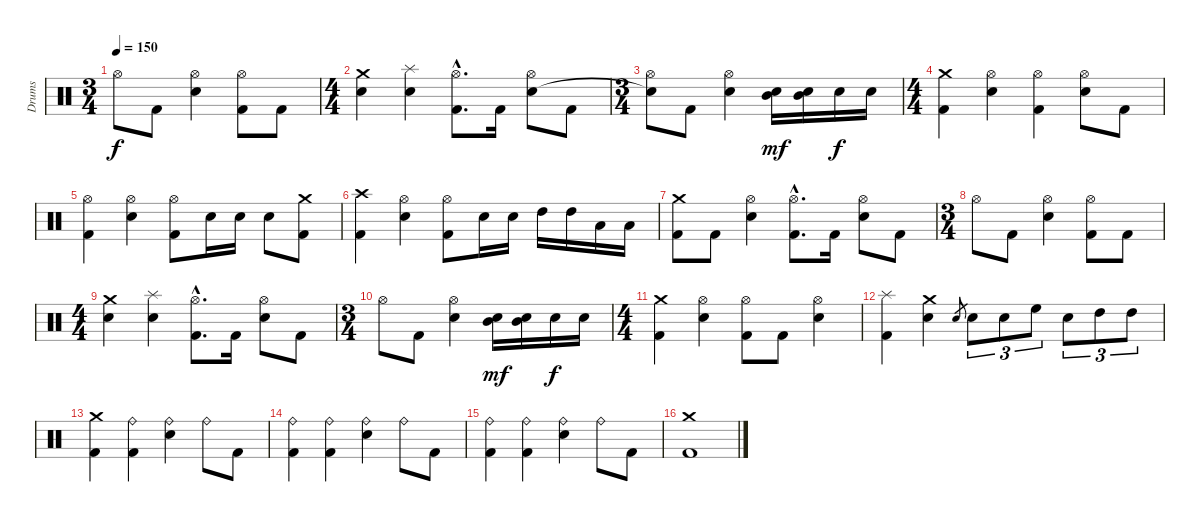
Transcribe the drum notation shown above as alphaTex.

\track ("Drums" "Drums") {instrument percussion}
\staff {score}
\articulation defaults
\ts (3 4)
\tempo 150
\clef neutral
\ks c "Hi-Hat (open)".8{dy f} "Kick (hit) 2".8
("Hi-Hat (open)" "Electric Snare (hit)").4 ("Hi-Hat (open)" "Kick (hit) 2").8 "Kick (hit) 2".8 |
\ts (4 4)
("Crash medium (hit)" "Electric Snare (hit)").4 ("Splash (hit)" "Electric Snare (hit)").4 ("Hi-Hat (open)"{hac} "Kick (hit) 2"{hac}).8{d} "Kick (hit) 2".16 ("Hi-Hat (open)" "Electric Snare (hit)").8 "Kick (hit) 2".8 |
\ts (3 4)
("Hi-Hat (open)" "Snare (hit)"{t}).8 "Kick (hit) 2".8 ("Hi-Hat (open)" "Electric Snare (hit)").4 ("Mid Tom (hit)" "Electric Snare (hit)").16{dy mf} ("Mid Tom (hit)" "Electric Snare (hit)").16 "Electric Snare (hit)".16{dy f} "Electric Snare (hit)".16 |
\ts (4 4)
("Crash medium (hit)" "Kick (hit) 2").4 ("Hi-Hat (open)" "Electric Snare (hit)").4 ("Hi-Hat (open)" "Kick (hit) 2").4 ("Hi-Hat (open)" "Electric Snare (hit)").8 "Kick (hit) 2".8 |
("Hi-Hat (open)" "Kick (hit) 2").4 ("Hi-Hat (open)" "Electric Snare (hit)").4 ("Hi-Hat (open)" "Kick (hit) 2").8 "Electric Snare (hit)".16 "Electric Snare (hit)".16 "Electric Snare (hit)".8 ("Crash medium (hit)" "Kick (hit) 2").8 |
("Crash high (hit)" "Kick (hit) 2").4 ("Hi-Hat (open)" "Electric Snare (hit)").4 ("Hi-Hat (open)" "Kick (hit) 2").8 "Electric Snare (hit)".16 "Electric Snare (hit)".16 "High Tom (hit)".16 "High Tom (hit)".16 "Low Tom (hit)".16 "Low Tom (hit)".16 |
("Crash medium (hit)" "Kick (hit) 2").8 "Kick (hit) 2".8 ("Hi-Hat (open)" "Electric Snare (hit)").4 ("Hi-Hat (open)"{hac} "Kick (hit) 2"{hac}).8{d} "Kick (hit) 2".16 ("Hi-Hat (open)" "Electric Snare (hit)").8 "Kick (hit) 2".8 |
\ts (3 4)
"Hi-Hat (open)".8 "Kick (hit) 2".8 ("Hi-Hat (open)" "Electric Snare (hit)").4 ("Hi-Hat (open)" "Kick (hit) 2").8 "Kick (hit) 2".8 |
\ts (4 4)
("Crash medium (hit)" "Electric Snare (hit)").4 ("Splash (hit)" "Electric Snare (hit)").4 ("Hi-Hat (open)"{hac} "Kick (hit) 2"{hac}).8{d} "Kick (hit) 2".16 ("Hi-Hat (open)" "Electric Snare (hit)").8 "Kick (hit) 2".8 |
\ts (3 4)
"Hi-Hat (open)".8 "Kick (hit) 2".8 ("Hi-Hat (open)" "Electric Snare (hit)").4 ("Mid Tom (hit)" "Electric Snare (hit)").16{dy mf} ("Mid Tom (hit)" "Electric Snare (hit)").16 "Electric Snare (hit)".16{dy f} "Electric Snare (hit)".16 |
\ts (4 4)
("Crash medium (hit)" "Kick (hit) 2").4 ("Hi-Hat (open)" "Electric Snare (hit)").4 ("Hi-Hat (open)" "Kick (hit) 2").8 "Kick (hit) 2".8 ("Hi-Hat (open)" "Electric Snare (hit)").4 |
("Splash (hit)" "Kick (hit) 2").4 ("Crash medium (hit)" "Electric Snare (hit)").4 "Electric Snare (hit)".8{gr} "Electric Snare (hit)".8{tu (3 2)} "Electric Snare (hit)".8{tu (3 2)} "High Floor Tom (hit)".8{tu (3 2)} "Electric Snare (hit)".8{tu (3 2)} "High Tom (hit)".8{tu (3 2)} "High Tom (hit)".8{tu (3 2)} |
("Crash medium (hit)" "Kick (hit) 2").4 ("Ride (bell)" "Kick (hit) 2").4 ("Ride (bell)" "Electric Snare (hit)").4 "Ride (bell)".8 "Kick (hit) 2".8 |
("Ride (bell)" "Kick (hit) 2").4 ("Ride (bell)" "Kick (hit) 2").4 ("Ride (bell)" "Electric Snare (hit)").4 "Ride (bell)".8 "Kick (hit) 2".8 |
("Ride (bell)" "Kick (hit) 2").4 ("Ride (bell)" "Kick (hit) 2").4 ("Ride (bell)" "Electric Snare (hit)").4 "Ride (bell)".8 "Kick (hit) 2".8 |
("Crash medium (hit)" "Kick (hit) 2").1
